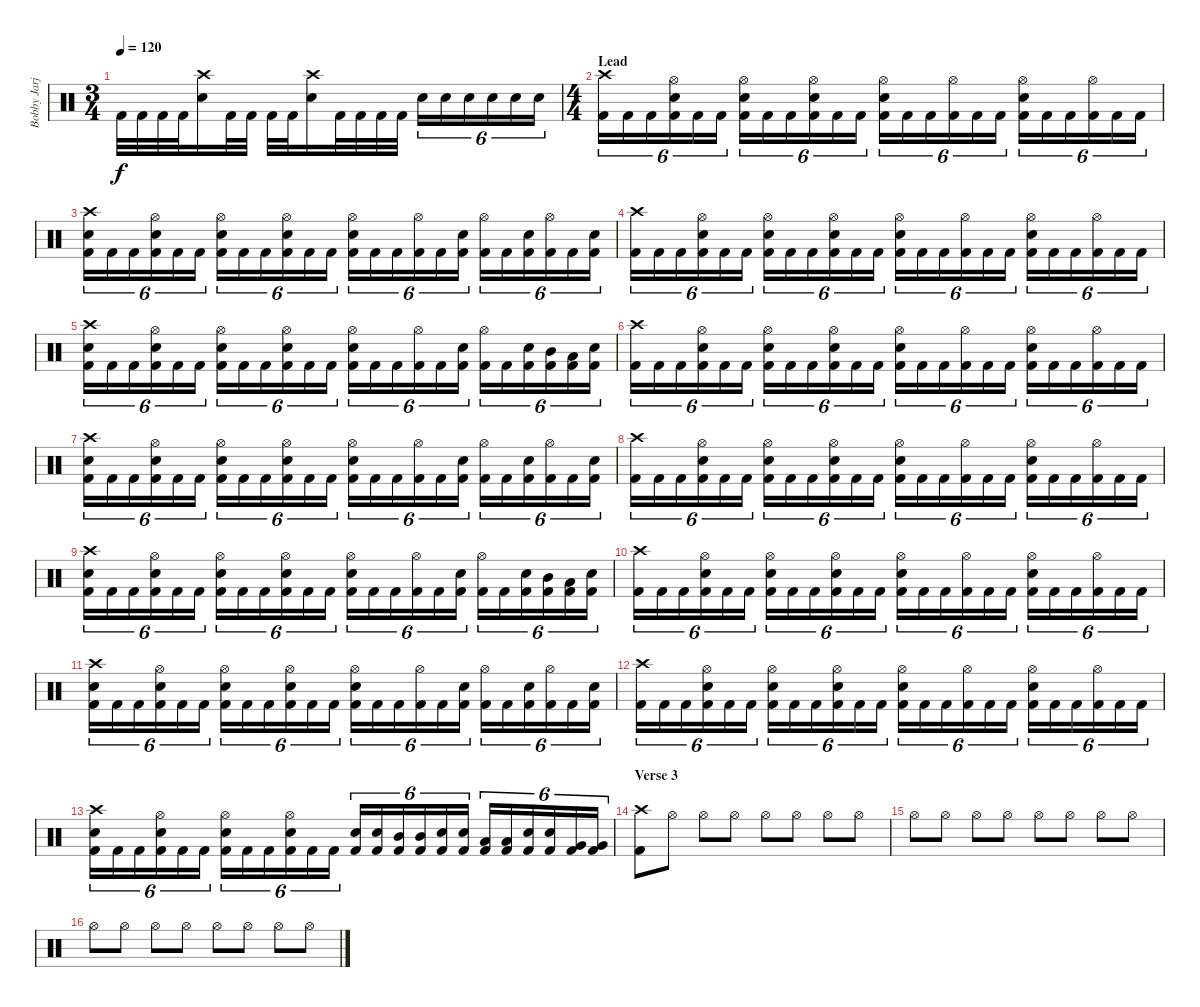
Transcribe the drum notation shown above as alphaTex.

\track ("Bobby Jarjombek" "Bobby Jarj") {instrument percussion}
\staff {score}
\articulation defaults
\ts (3 4)
\tempo 120
\clef neutral
\ks c "Kick (hit) 2".32{dy f} "Kick (hit) 2".32 "Kick (hit) 2".32 "Kick (hit) 2".32
("Crash high (hit)" "Electric Snare (hit)").16 "Kick (hit) 2".32 "Kick (hit) 2".32 "Kick (hit) 2".32 "Kick (hit) 2".32 ("Crash high (hit)" "Electric Snare (hit)").16 "Kick (hit) 2".32 "Kick (hit) 2".32 "Kick (hit) 2".32 "Kick (hit) 2".32 "Electric Snare (hit)".16{tu (6 4)} "Electric Snare (hit)".16{tu (6 4)} "Electric Snare (hit)".16{tu (6 4)} "Electric Snare (hit)".16{tu (6 4)} "Electric Snare (hit)".16{tu (6 4)} "Electric Snare (hit)".16{tu (6 4)} |
\ts (4 4)
\section ("" "Lead")
("Kick (hit) 2" "Crash high (hit)").16{tu (6 4)} "Kick (hit) 2".16{tu (6 4)} "Kick (hit) 2".16{tu (6 4)} ("Kick (hit) 2" "Hi-Hat (open)" "Electric Snare (hit)").16{tu (6 4)} "Kick (hit) 2".16{tu (6 4)} "Kick (hit) 2".16{tu (6 4)} ("Kick (hit) 2" "Hi-Hat (open)" "Electric Snare (hit)").16{tu (6 4)} "Kick (hit) 2".16{tu (6 4)} "Kick (hit) 2".16{tu (6 4)} ("Kick (hit) 2" "Hi-Hat (open)" "Electric Snare (hit)").16{tu (6 4)} "Kick (hit) 2".16{tu (6 4)} "Kick (hit) 2".16{tu (6 4)} ("Kick (hit) 2" "Hi-Hat (open)" "Electric Snare (hit)").16{tu (6 4)} "Kick (hit) 2".16{tu (6 4)} "Kick (hit) 2".16{tu (6 4)} ("Kick (hit) 2" "Hi-Hat (open)").16{tu (6 4)} "Kick (hit) 2".16{tu (6 4)} "Kick (hit) 2".16{tu (6 4)} ("Kick (hit) 2" "Hi-Hat (open)" "Electric Snare (hit)").16{tu (6 4)} "Kick (hit) 2".16{tu (6 4)} "Kick (hit) 2".16{tu (6 4)} ("Kick (hit) 2" "Hi-Hat (open)").16{tu (6 4)} "Kick (hit) 2".16{tu (6 4)} "Kick (hit) 2".16{tu (6 4)} |
("Kick (hit) 2" "Crash high (hit)" "Electric Snare (hit)").16{tu (6 4)} "Kick (hit) 2".16{tu (6 4)} "Kick (hit) 2".16{tu (6 4)} ("Kick (hit) 2" "Hi-Hat (open)" "Electric Snare (hit)").16{tu (6 4)} "Kick (hit) 2".16{tu (6 4)} "Kick (hit) 2".16{tu (6 4)} ("Kick (hit) 2" "Hi-Hat (open)" "Electric Snare (hit)").16{tu (6 4)} "Kick (hit) 2".16{tu (6 4)} "Kick (hit) 2".16{tu (6 4)} ("Kick (hit) 2" "Hi-Hat (open)" "Electric Snare (hit)").16{tu (6 4)} "Kick (hit) 2".16{tu (6 4)} "Kick (hit) 2".16{tu (6 4)} ("Kick (hit) 2" "Hi-Hat (open)" "Electric Snare (hit)").16{tu (6 4)} "Kick (hit) 2".16{tu (6 4)} "Kick (hit) 2".16{tu (6 4)} ("Kick (hit) 2" "Hi-Hat (open)").16{tu (6 4)} "Kick (hit) 2".16{tu (6 4)} ("Kick (hit) 2" "Electric Snare (hit)").16{tu (6 4)} ("Kick (hit) 2" "Hi-Hat (open)").16{tu (6 4)} "Kick (hit) 2".16{tu (6 4)} ("Kick (hit) 2" "Electric Snare (hit)").16{tu (6 4)} ("Kick (hit) 2" "Hi-Hat (open)").16{tu (6 4)} "Kick (hit) 2".16{tu (6 4)} ("Kick (hit) 2" "Electric Snare (hit)").16{tu (6 4)} |
("Kick (hit) 2" "Crash high (hit)").16{tu (6 4)} "Kick (hit) 2".16{tu (6 4)} "Kick (hit) 2".16{tu (6 4)} ("Kick (hit) 2" "Hi-Hat (open)" "Electric Snare (hit)").16{tu (6 4)} "Kick (hit) 2".16{tu (6 4)} "Kick (hit) 2".16{tu (6 4)} ("Kick (hit) 2" "Hi-Hat (open)" "Electric Snare (hit)").16{tu (6 4)} "Kick (hit) 2".16{tu (6 4)} "Kick (hit) 2".16{tu (6 4)} ("Kick (hit) 2" "Hi-Hat (open)" "Electric Snare (hit)").16{tu (6 4)} "Kick (hit) 2".16{tu (6 4)} "Kick (hit) 2".16{tu (6 4)} ("Kick (hit) 2" "Hi-Hat (open)" "Electric Snare (hit)").16{tu (6 4)} "Kick (hit) 2".16{tu (6 4)} "Kick (hit) 2".16{tu (6 4)} ("Kick (hit) 2" "Hi-Hat (open)").16{tu (6 4)} "Kick (hit) 2".16{tu (6 4)} "Kick (hit) 2".16{tu (6 4)} ("Kick (hit) 2" "Hi-Hat (open)" "Electric Snare (hit)").16{tu (6 4)} "Kick (hit) 2".16{tu (6 4)} "Kick (hit) 2".16{tu (6 4)} ("Kick (hit) 2" "Hi-Hat (open)").16{tu (6 4)} "Kick (hit) 2".16{tu (6 4)} "Kick (hit) 2".16{tu (6 4)} |
("Kick (hit) 2" "Crash high (hit)" "Electric Snare (hit)").16{tu (6 4)} "Kick (hit) 2".16{tu (6 4)} "Kick (hit) 2".16{tu (6 4)} ("Kick (hit) 2" "Hi-Hat (open)" "Electric Snare (hit)").16{tu (6 4)} "Kick (hit) 2".16{tu (6 4)} "Kick (hit) 2".16{tu (6 4)} ("Kick (hit) 2" "Hi-Hat (open)" "Electric Snare (hit)").16{tu (6 4)} "Kick (hit) 2".16{tu (6 4)} "Kick (hit) 2".16{tu (6 4)} ("Kick (hit) 2" "Hi-Hat (open)" "Electric Snare (hit)").16{tu (6 4)} "Kick (hit) 2".16{tu (6 4)} "Kick (hit) 2".16{tu (6 4)} ("Kick (hit) 2" "Hi-Hat (open)" "Electric Snare (hit)").16{tu (6 4)} "Kick (hit) 2".16{tu (6 4)} "Kick (hit) 2".16{tu (6 4)} ("Kick (hit) 2" "Hi-Hat (open)").16{tu (6 4)} "Kick (hit) 2".16{tu (6 4)} ("Kick (hit) 2" "Electric Snare (hit)").16{tu (6 4)} ("Kick (hit) 2" "Hi-Hat (open)").16{tu (6 4)} "Kick (hit) 2".16{tu (6 4)} ("Kick (hit) 2" "Electric Snare (hit)").16{tu (6 4)} ("Kick (hit) 2" "Mid Tom (hit)").16{tu (6 4)} ("Kick (hit) 2" "Low Tom (hit)").16{tu (6 4)} ("Kick (hit) 2" "Electric Snare (hit)").16{tu (6 4)} |
("Kick (hit) 2" "Crash high (hit)").16{tu (6 4)} "Kick (hit) 2".16{tu (6 4)} "Kick (hit) 2".16{tu (6 4)} ("Kick (hit) 2" "Hi-Hat (open)" "Electric Snare (hit)").16{tu (6 4)} "Kick (hit) 2".16{tu (6 4)} "Kick (hit) 2".16{tu (6 4)} ("Kick (hit) 2" "Hi-Hat (open)" "Electric Snare (hit)").16{tu (6 4)} "Kick (hit) 2".16{tu (6 4)} "Kick (hit) 2".16{tu (6 4)} ("Kick (hit) 2" "Hi-Hat (open)" "Electric Snare (hit)").16{tu (6 4)} "Kick (hit) 2".16{tu (6 4)} "Kick (hit) 2".16{tu (6 4)} ("Kick (hit) 2" "Hi-Hat (open)" "Electric Snare (hit)").16{tu (6 4)} "Kick (hit) 2".16{tu (6 4)} "Kick (hit) 2".16{tu (6 4)} ("Kick (hit) 2" "Hi-Hat (open)").16{tu (6 4)} "Kick (hit) 2".16{tu (6 4)} "Kick (hit) 2".16{tu (6 4)} ("Kick (hit) 2" "Hi-Hat (open)" "Electric Snare (hit)").16{tu (6 4)} "Kick (hit) 2".16{tu (6 4)} "Kick (hit) 2".16{tu (6 4)} ("Kick (hit) 2" "Hi-Hat (open)").16{tu (6 4)} "Kick (hit) 2".16{tu (6 4)} "Kick (hit) 2".16{tu (6 4)} |
("Kick (hit) 2" "Crash high (hit)" "Electric Snare (hit)").16{tu (6 4)} "Kick (hit) 2".16{tu (6 4)} "Kick (hit) 2".16{tu (6 4)} ("Kick (hit) 2" "Hi-Hat (open)" "Electric Snare (hit)").16{tu (6 4)} "Kick (hit) 2".16{tu (6 4)} "Kick (hit) 2".16{tu (6 4)} ("Kick (hit) 2" "Hi-Hat (open)" "Electric Snare (hit)").16{tu (6 4)} "Kick (hit) 2".16{tu (6 4)} "Kick (hit) 2".16{tu (6 4)} ("Kick (hit) 2" "Hi-Hat (open)" "Electric Snare (hit)").16{tu (6 4)} "Kick (hit) 2".16{tu (6 4)} "Kick (hit) 2".16{tu (6 4)} ("Kick (hit) 2" "Hi-Hat (open)" "Electric Snare (hit)").16{tu (6 4)} "Kick (hit) 2".16{tu (6 4)} "Kick (hit) 2".16{tu (6 4)} ("Kick (hit) 2" "Hi-Hat (open)").16{tu (6 4)} "Kick (hit) 2".16{tu (6 4)} ("Kick (hit) 2" "Electric Snare (hit)").16{tu (6 4)} ("Kick (hit) 2" "Hi-Hat (open)").16{tu (6 4)} "Kick (hit) 2".16{tu (6 4)} ("Kick (hit) 2" "Electric Snare (hit)").16{tu (6 4)} ("Kick (hit) 2" "Hi-Hat (open)").16{tu (6 4)} "Kick (hit) 2".16{tu (6 4)} ("Kick (hit) 2" "Electric Snare (hit)").16{tu (6 4)} |
("Kick (hit) 2" "Crash high (hit)").16{tu (6 4)} "Kick (hit) 2".16{tu (6 4)} "Kick (hit) 2".16{tu (6 4)} ("Kick (hit) 2" "Hi-Hat (open)" "Electric Snare (hit)").16{tu (6 4)} "Kick (hit) 2".16{tu (6 4)} "Kick (hit) 2".16{tu (6 4)} ("Kick (hit) 2" "Hi-Hat (open)" "Electric Snare (hit)").16{tu (6 4)} "Kick (hit) 2".16{tu (6 4)} "Kick (hit) 2".16{tu (6 4)} ("Kick (hit) 2" "Hi-Hat (open)" "Electric Snare (hit)").16{tu (6 4)} "Kick (hit) 2".16{tu (6 4)} "Kick (hit) 2".16{tu (6 4)} ("Kick (hit) 2" "Hi-Hat (open)" "Electric Snare (hit)").16{tu (6 4)} "Kick (hit) 2".16{tu (6 4)} "Kick (hit) 2".16{tu (6 4)} ("Kick (hit) 2" "Hi-Hat (open)").16{tu (6 4)} "Kick (hit) 2".16{tu (6 4)} "Kick (hit) 2".16{tu (6 4)} ("Kick (hit) 2" "Hi-Hat (open)" "Electric Snare (hit)").16{tu (6 4)} "Kick (hit) 2".16{tu (6 4)} "Kick (hit) 2".16{tu (6 4)} ("Kick (hit) 2" "Hi-Hat (open)").16{tu (6 4)} "Kick (hit) 2".16{tu (6 4)} "Kick (hit) 2".16{tu (6 4)} |
("Kick (hit) 2" "Crash high (hit)" "Electric Snare (hit)").16{tu (6 4)} "Kick (hit) 2".16{tu (6 4)} "Kick (hit) 2".16{tu (6 4)} ("Kick (hit) 2" "Hi-Hat (open)" "Electric Snare (hit)").16{tu (6 4)} "Kick (hit) 2".16{tu (6 4)} "Kick (hit) 2".16{tu (6 4)} ("Kick (hit) 2" "Hi-Hat (open)" "Electric Snare (hit)").16{tu (6 4)} "Kick (hit) 2".16{tu (6 4)} "Kick (hit) 2".16{tu (6 4)} ("Kick (hit) 2" "Hi-Hat (open)" "Electric Snare (hit)").16{tu (6 4)} "Kick (hit) 2".16{tu (6 4)} "Kick (hit) 2".16{tu (6 4)} ("Kick (hit) 2" "Hi-Hat (open)" "Electric Snare (hit)").16{tu (6 4)} "Kick (hit) 2".16{tu (6 4)} "Kick (hit) 2".16{tu (6 4)} ("Kick (hit) 2" "Hi-Hat (open)").16{tu (6 4)} "Kick (hit) 2".16{tu (6 4)} ("Kick (hit) 2" "Electric Snare (hit)").16{tu (6 4)} ("Kick (hit) 2" "Hi-Hat (open)").16{tu (6 4)} "Kick (hit) 2".16{tu (6 4)} ("Kick (hit) 2" "Electric Snare (hit)").16{tu (6 4)} ("Kick (hit) 2" "Mid Tom (hit)").16{tu (6 4)} ("Kick (hit) 2" "Low Tom (hit)").16{tu (6 4)} ("Kick (hit) 2" "Electric Snare (hit)").16{tu (6 4)} |
("Kick (hit) 2" "Crash high (hit)").16{tu (6 4)} "Kick (hit) 2".16{tu (6 4)} "Kick (hit) 2".16{tu (6 4)} ("Kick (hit) 2" "Hi-Hat (open)" "Electric Snare (hit)").16{tu (6 4)} "Kick (hit) 2".16{tu (6 4)} "Kick (hit) 2".16{tu (6 4)} ("Kick (hit) 2" "Hi-Hat (open)" "Electric Snare (hit)").16{tu (6 4)} "Kick (hit) 2".16{tu (6 4)} "Kick (hit) 2".16{tu (6 4)} ("Kick (hit) 2" "Hi-Hat (open)" "Electric Snare (hit)").16{tu (6 4)} "Kick (hit) 2".16{tu (6 4)} "Kick (hit) 2".16{tu (6 4)} ("Kick (hit) 2" "Hi-Hat (open)" "Electric Snare (hit)").16{tu (6 4)} "Kick (hit) 2".16{tu (6 4)} "Kick (hit) 2".16{tu (6 4)} ("Kick (hit) 2" "Hi-Hat (open)").16{tu (6 4)} "Kick (hit) 2".16{tu (6 4)} "Kick (hit) 2".16{tu (6 4)} ("Kick (hit) 2" "Hi-Hat (open)" "Electric Snare (hit)").16{tu (6 4)} "Kick (hit) 2".16{tu (6 4)} "Kick (hit) 2".16{tu (6 4)} ("Kick (hit) 2" "Hi-Hat (open)").16{tu (6 4)} "Kick (hit) 2".16{tu (6 4)} "Kick (hit) 2".16{tu (6 4)} |
("Kick (hit) 2" "Crash high (hit)" "Electric Snare (hit)").16{tu (6 4)} "Kick (hit) 2".16{tu (6 4)} "Kick (hit) 2".16{tu (6 4)} ("Kick (hit) 2" "Hi-Hat (open)" "Electric Snare (hit)").16{tu (6 4)} "Kick (hit) 2".16{tu (6 4)} "Kick (hit) 2".16{tu (6 4)} ("Kick (hit) 2" "Hi-Hat (open)" "Electric Snare (hit)").16{tu (6 4)} "Kick (hit) 2".16{tu (6 4)} "Kick (hit) 2".16{tu (6 4)} ("Kick (hit) 2" "Hi-Hat (open)" "Electric Snare (hit)").16{tu (6 4)} "Kick (hit) 2".16{tu (6 4)} "Kick (hit) 2".16{tu (6 4)} ("Kick (hit) 2" "Hi-Hat (open)" "Electric Snare (hit)").16{tu (6 4)} "Kick (hit) 2".16{tu (6 4)} "Kick (hit) 2".16{tu (6 4)} ("Kick (hit) 2" "Hi-Hat (open)").16{tu (6 4)} "Kick (hit) 2".16{tu (6 4)} ("Kick (hit) 2" "Electric Snare (hit)").16{tu (6 4)} ("Kick (hit) 2" "Hi-Hat (open)").16{tu (6 4)} "Kick (hit) 2".16{tu (6 4)} ("Kick (hit) 2" "Electric Snare (hit)").16{tu (6 4)} ("Kick (hit) 2" "Hi-Hat (open)").16{tu (6 4)} "Kick (hit) 2".16{tu (6 4)} ("Kick (hit) 2" "Electric Snare (hit)").16{tu (6 4)} |
("Kick (hit) 2" "Crash high (hit)").16{tu (6 4)} "Kick (hit) 2".16{tu (6 4)} "Kick (hit) 2".16{tu (6 4)} ("Kick (hit) 2" "Hi-Hat (open)" "Electric Snare (hit)").16{tu (6 4)} "Kick (hit) 2".16{tu (6 4)} "Kick (hit) 2".16{tu (6 4)} ("Kick (hit) 2" "Hi-Hat (open)" "Electric Snare (hit)").16{tu (6 4)} "Kick (hit) 2".16{tu (6 4)} "Kick (hit) 2".16{tu (6 4)} ("Kick (hit) 2" "Hi-Hat (open)" "Electric Snare (hit)").16{tu (6 4)} "Kick (hit) 2".16{tu (6 4)} "Kick (hit) 2".16{tu (6 4)} ("Kick (hit) 2" "Hi-Hat (open)" "Electric Snare (hit)").16{tu (6 4)} "Kick (hit) 2".16{tu (6 4)} "Kick (hit) 2".16{tu (6 4)} ("Kick (hit) 2" "Hi-Hat (open)").16{tu (6 4)} "Kick (hit) 2".16{tu (6 4)} "Kick (hit) 2".16{tu (6 4)} ("Kick (hit) 2" "Hi-Hat (open)" "Electric Snare (hit)").16{tu (6 4)} "Kick (hit) 2".16{tu (6 4)} "Kick (hit) 2".16{tu (6 4)} ("Kick (hit) 2" "Hi-Hat (open)").16{tu (6 4)} "Kick (hit) 2".16{tu (6 4)} "Kick (hit) 2".16{tu (6 4)} |
("Kick (hit) 2" "Crash high (hit)" "Electric Snare (hit)").16{tu (6 4)} "Kick (hit) 2".16{tu (6 4)} "Kick (hit) 2".16{tu (6 4)} ("Kick (hit) 2" "Hi-Hat (open)" "Electric Snare (hit)").16{tu (6 4)} "Kick (hit) 2".16{tu (6 4)} "Kick (hit) 2".16{tu (6 4)} ("Kick (hit) 2" "Hi-Hat (open)" "Electric Snare (hit)").16{tu (6 4)} "Kick (hit) 2".16{tu (6 4)} "Kick (hit) 2".16{tu (6 4)} ("Kick (hit) 2" "Hi-Hat (open)" "Electric Snare (hit)").16{tu (6 4)} "Kick (hit) 2".16{tu (6 4)} "Kick (hit) 2".16{tu (6 4)} ("Kick (hit) 2" "Electric Snare (hit)").16{tu (6 4)} ("Kick (hit) 2" "Electric Snare (hit)").16{tu (6 4)} ("Kick (hit) 2" "Mid Tom (hit)").16{tu (6 4)} ("Kick (hit) 2" "Mid Tom (hit)").16{tu (6 4)} ("Kick (hit) 2" "Electric Snare (hit)").16{tu (6 4)} ("Kick (hit) 2" "Electric Snare (hit)").16{tu (6 4)} ("Kick (hit) 2" "Low Tom (hit)").16{tu (6 4)} ("Kick (hit) 2" "Low Tom (hit)").16{tu (6 4)} ("Kick (hit) 2" "Electric Snare (hit)").16{tu (6 4)} ("Kick (hit) 2" "Electric Snare (hit)").16{tu (6 4)} ("Kick (hit) 2" "Very Low Tom (hit)").16{tu (6 4)} ("Kick (hit) 2" "Very Low Tom (hit)").16{tu (6 4)} |
\section ("" "Verse 3")
("Kick (hit) 2" "Crash high (hit)").8 "Hi-Hat (open)".8 "Hi-Hat (open)".8 "Hi-Hat (open)".8 "Hi-Hat (open)".8 "Hi-Hat (open)".8 "Hi-Hat (open)".8 "Hi-Hat (open)".8 |
"Hi-Hat (open)".8 "Hi-Hat (open)".8 "Hi-Hat (open)".8 "Hi-Hat (open)".8 "Hi-Hat (open)".8 "Hi-Hat (open)".8 "Hi-Hat (open)".8 "Hi-Hat (open)".8 |
"Hi-Hat (open)".8 "Hi-Hat (open)".8 "Hi-Hat (open)".8 "Hi-Hat (open)".8 "Hi-Hat (open)".8 "Hi-Hat (open)".8 "Hi-Hat (open)".8 "Hi-Hat (open)".8
